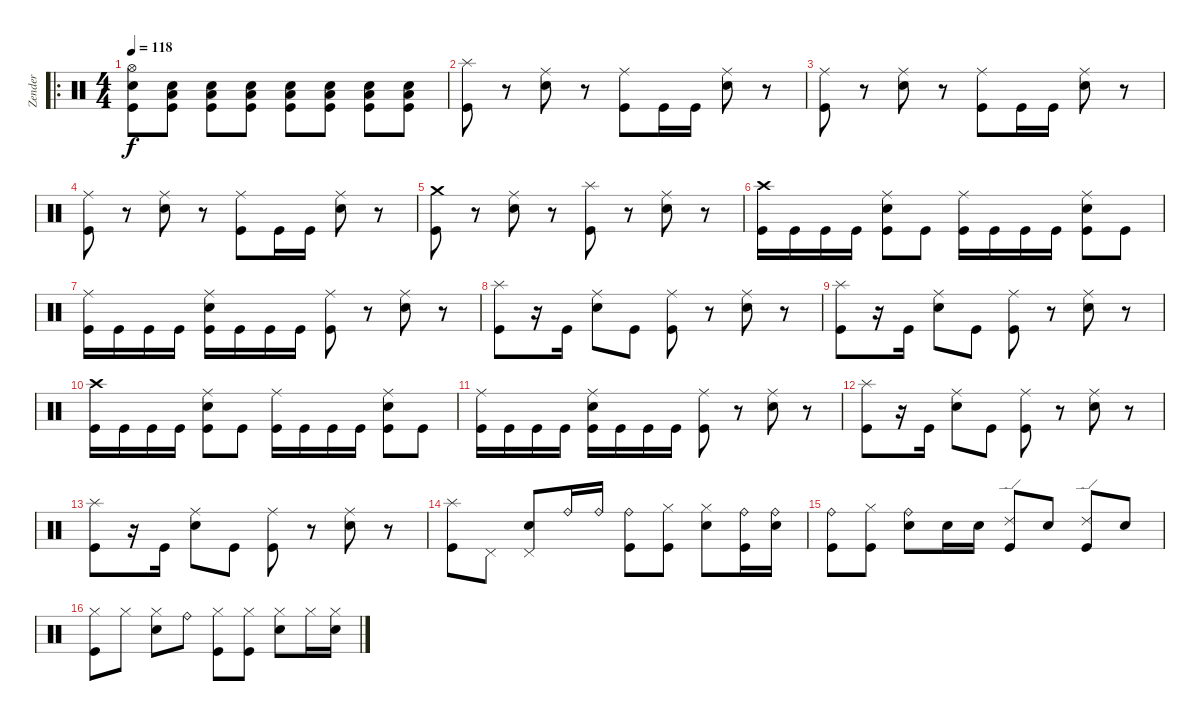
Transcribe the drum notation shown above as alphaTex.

\track ("Zender" "Zender") {instrument percussion}
\staff {score}
\articulation defaults
\ro
\ts (4 4)
\tempo 118
\clef neutral
\ks c
("Hi-Hat (open)" "Snare (hit) 2" "Kick (hit)").8{dy f} ("Low Tom (hit)" "Snare (hit) 2" "Kick (hit)").8 ("Low Tom (hit)" "Snare (hit) 2" "Kick (hit)").8 ("Low Tom (hit)" "Snare (hit) 2" "Kick (hit)").8 ("Low Tom (hit)" "Snare (hit) 2" "Kick (hit)").8 ("Low Tom (hit)" "Snare (hit) 2" "Kick (hit)").8 ("Low Tom (hit)" "Snare (hit) 2" "Kick (hit)").8 ("Low Tom (hit)" "Snare (hit) 2" "Kick (hit)").8 |
("Splash (hit)" "Kick (hit)").8 r.8 ("Ride (middle)" "Snare (hit) 2").8 r.8 ("Ride (middle)" "Kick (hit)").8 "Kick (hit)".16 "Kick (hit)".16 ("Ride (middle)" "Snare (hit) 2").8 r.8 |
("Ride (middle)" "Kick (hit)").8 r.8 ("Ride (middle)" "Snare (hit) 2").8 r.8 ("Ride (middle)" "Kick (hit)").8 "Kick (hit)".16 "Kick (hit)".16 ("Ride (middle)" "Snare (hit) 2").8 r.8 |
("Ride (middle)" "Kick (hit)").8 r.8 ("Ride (middle)" "Snare (hit) 2").8 r.8 ("Ride (middle)" "Kick (hit)").8 "Kick (hit)".16 "Kick (hit)".16 ("Ride (middle)" "Snare (hit) 2").8 r.8 |
("Crash medium (hit)" "Kick (hit)").8 r.8 ("Ride (middle)" "Snare (hit) 2").8 r.8 ("Splash (hit)" "Kick (hit)").8 r.8 ("Ride (middle)" "Snare (hit) 2").8 r.8 |
("Crash high (hit)" "Kick (hit)").16 "Kick (hit)".16 "Kick (hit)".16 "Kick (hit)".16 ("Ride (middle)" "Snare (hit) 2" "Kick (hit)").8 "Kick (hit)".8 ("Ride (middle)" "Kick (hit)").16 "Kick (hit)".16 "Kick (hit)".16 "Kick (hit)".16 ("Ride (middle)" "Snare (hit) 2" "Kick (hit)").8 "Kick (hit)".8 |
("Ride (middle)" "Kick (hit)").16 "Kick (hit)".16 "Kick (hit)".16 "Kick (hit)".16 ("Ride (middle)" "Snare (hit) 2" "Kick (hit)").16 "Kick (hit)".16 "Kick (hit)".16 "Kick (hit)".16 ("Ride (middle)" "Kick (hit)").8 r.8 ("Ride (middle)" "Snare (hit) 2").8 r.8 |
("Splash (hit)" "Kick (hit)").8 r.16 "Kick (hit)".16 ("Ride (middle)" "Snare (hit) 2").8 "Kick (hit)".8 ("Ride (middle)" "Kick (hit)").8 r.8 ("Ride (middle)" "Snare (hit) 2").8 r.8 |
("Splash (hit)" "Kick (hit)").8 r.16 "Kick (hit)".16 ("Ride (middle)" "Snare (hit) 2").8 "Kick (hit)".8 ("Ride (middle)" "Kick (hit)").8 r.8 ("Ride (middle)" "Snare (hit) 2").8 r.8 |
("Crash high (hit)" "Kick (hit)").16 "Kick (hit)".16 "Kick (hit)".16 "Kick (hit)".16 ("Ride (middle)" "Snare (hit) 2" "Kick (hit)").8 "Kick (hit)".8 ("Ride (middle)" "Kick (hit)").16 "Kick (hit)".16 "Kick (hit)".16 "Kick (hit)".16 ("Ride (middle)" "Snare (hit) 2" "Kick (hit)").8 "Kick (hit)".8 |
("Ride (middle)" "Kick (hit)").16 "Kick (hit)".16 "Kick (hit)".16 "Kick (hit)".16 ("Ride (middle)" "Snare (hit) 2" "Kick (hit)").16 "Kick (hit)".16 "Kick (hit)".16 "Kick (hit)".16 ("Ride (middle)" "Kick (hit)").8 r.8 ("Ride (middle)" "Snare (hit) 2").8 r.8 |
("Splash (hit)" "Kick (hit)").8 r.16 "Kick (hit)".16 ("Ride (middle)" "Snare (hit) 2").8 "Kick (hit)".8 ("Ride (middle)" "Kick (hit)").8 r.8 ("Ride (middle)" "Snare (hit) 2").8 r.8 |
("Splash (hit)" "Kick (hit)").8 r.16 "Kick (hit)".16 ("Ride (middle)" "Snare (hit) 2").8 "Kick (hit)".8 ("Ride (middle)" "Kick (hit)").8 r.8 ("Ride (middle)" "Snare (hit) 2").8 r.8 |
("Splash (hit)" "Kick (hit)").8 "Pedal Hi-Hat (hit)".8 ("Pedal Hi-Hat (hit)" "Snare (hit) 2").8 "Ride (bell)".16 "Ride (bell)".16 ("Ride (bell)" "Kick (hit)").8 ("Hi-Hat (closed)" "Kick (hit)").8 ("Hi-Hat (closed)" "Snare (hit) 2").8 ("Ride (bell)" "Kick (hit)").16 ("Ride (bell)" "Snare (hit) 2").16 |
("Ride (bell)" "Kick (hit)").8 ("Hi-Hat (closed)" "Kick (hit)").8 ("Ride (bell)" "Snare (hit) 2").8 "Snare (hit) 2".16 "Snare (hit) 2".16 ("Ride (edge) 2" "Kick (hit)").8 "Snare (hit) 2".8 ("Ride (edge) 2" "Kick (hit)").8 "Snare (hit) 2".8 |
("Hi-Hat (closed)" "Kick (hit)").8 "Hi-Hat (closed)".8 ("Hi-Hat (closed)" "Snare (hit) 2").8 "Ride (bell)".8 ("Hi-Hat (closed)" "Kick (hit)").8 ("Hi-Hat (closed)" "Kick (hit)").8 ("Hi-Hat (closed)" "Snare (hit) 2").8 "Hi-Hat (closed)".16 ("Hi-Hat (closed)" "Snare (hit) 2").16
